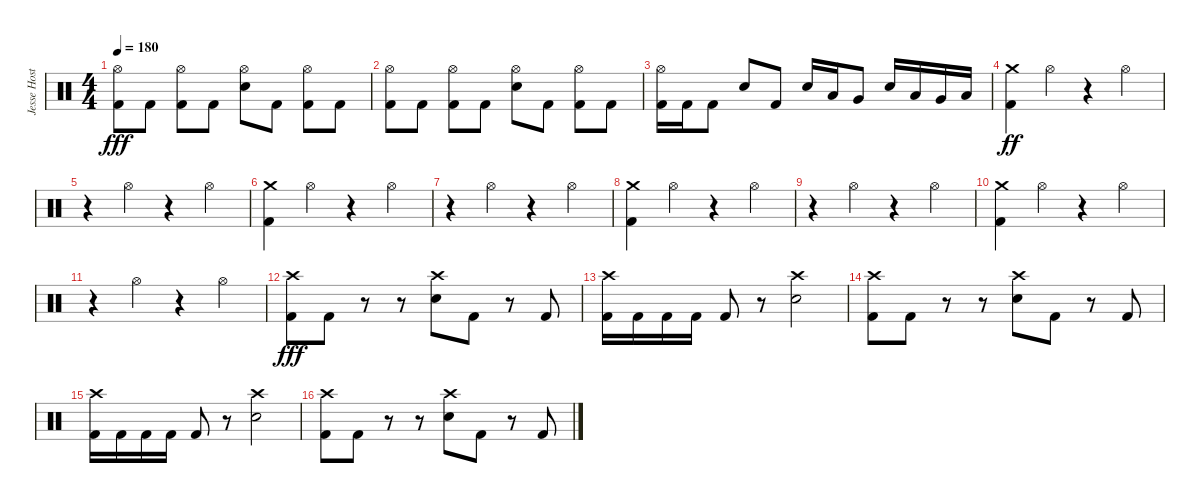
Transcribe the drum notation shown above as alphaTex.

\track ("Jesse Hostetler" "Jesse Host") {instrument percussion}
\staff {score}
\articulation defaults
\ts (4 4)
\tempo 180
\clef neutral
\ks c
("Hi-Hat (open)" "Kick (hit) 2").8{dy fff} "Kick (hit) 2".8 ("Hi-Hat (open)" "Kick (hit) 2").8 "Kick (hit) 2".8 ("Hi-Hat (open)" "Electric Snare (hit)").8 "Kick (hit) 2".8 ("Hi-Hat (open)" "Kick (hit) 2").8 "Kick (hit) 2".8 |
("Hi-Hat (open)" "Kick (hit) 2").8 "Kick (hit) 2".8 ("Hi-Hat (open)" "Kick (hit) 2").8 "Kick (hit) 2".8 ("Hi-Hat (open)" "Electric Snare (hit)").8 "Kick (hit) 2".8 ("Hi-Hat (open)" "Kick (hit) 2").8 "Kick (hit) 2".8 |
("Hi-Hat (open)" "Kick (hit) 2").16 "Kick (hit) 2".16 "Kick (hit) 2".8 "Electric Snare (hit)".8 "Kick (hit) 2".8 "Electric Snare (hit)".16 "Low Tom (hit)".16 "Very Low Tom (hit)".8 "Electric Snare (hit)".16 "Low Tom (hit)".16 "Very Low Tom (hit)".16 "Low Floor Tom (hit)".16 |
("Crash medium (hit)" "Kick (hit) 2").4{dy ff} "Hi-Hat (open)".4 r.4 "Hi-Hat (open)".4 |
r.4 "Hi-Hat (open)".4 r.4 "Hi-Hat (open)".4 |
("Crash medium (hit)" "Kick (hit) 2").4 "Hi-Hat (open)".4 r.4 "Hi-Hat (open)".4 |
r.4 "Hi-Hat (open)".4 r.4 "Hi-Hat (open)".4 |
("Crash medium (hit)" "Kick (hit) 2").4 "Hi-Hat (open)".4 r.4 "Hi-Hat (open)".4 |
r.4 "Hi-Hat (open)".4 r.4 "Hi-Hat (open)".4 |
("Crash medium (hit)" "Kick (hit) 2").4 "Hi-Hat (open)".4 r.4 "Hi-Hat (open)".4 |
r.4 "Hi-Hat (open)".4 r.4 "Hi-Hat (open)".4 |
("Crash high (hit)" "Kick (hit) 2").8{dy fff} "Kick (hit) 2".8 r.8 r.8 ("Crash high (hit)" "Electric Snare (hit)").8 "Kick (hit) 2".8 r.8 "Kick (hit) 2".8 |
("Crash high (hit)" "Kick (hit) 2").16 "Kick (hit) 2".16 "Kick (hit) 2".16 "Kick (hit) 2".16 "Kick (hit) 2".8 r.8 ("Crash high (hit)" "Electric Snare (hit)").2 |
("Crash high (hit)" "Kick (hit) 2").8 "Kick (hit) 2".8 r.8 r.8 ("Crash high (hit)" "Electric Snare (hit)").8 "Kick (hit) 2".8 r.8 "Kick (hit) 2".8 |
("Crash high (hit)" "Kick (hit) 2").16 "Kick (hit) 2".16 "Kick (hit) 2".16 "Kick (hit) 2".16 "Kick (hit) 2".8 r.8 ("Crash high (hit)" "Electric Snare (hit)").2 |
("Crash high (hit)" "Kick (hit) 2").8 "Kick (hit) 2".8 r.8 r.8 ("Crash high (hit)" "Electric Snare (hit)").8 "Kick (hit) 2".8 r.8 "Kick (hit) 2".8
